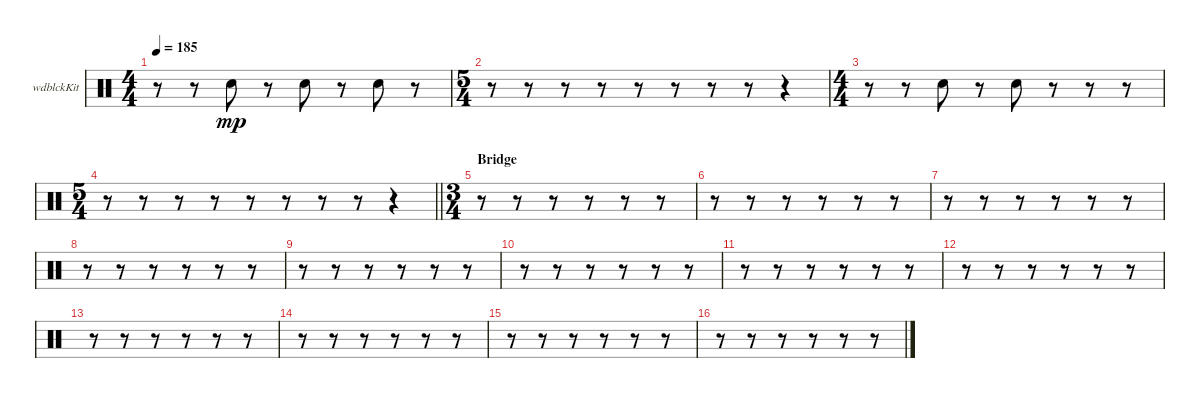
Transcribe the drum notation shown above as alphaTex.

\bracketExtendMode groupsimilarinstruments
\firstSystemTrackNameOrientation horizontal
\otherSystemsTrackNameOrientation horizontal
\track ("Woodblock" "wdblckKit") {instrument percussion}
\staff {score}
\articulation defaults
\ts (4 4)
\beaming (8 2 2 2 2)
\tempo 185
\clef neutral
\ks c
r.8{dy mf} r.8 "Snare (hit) 2".8{dy mp} r.8 "Snare (hit) 2".8 r.8 "Snare (hit) 2".8 r.8 |
\ts (5 4)
\beaming (8 2 2 2 4)
r.8 r.8 r.8 r.8 r.8 r.8 r.8 r.8 r.4 |
\ts (4 4)
\beaming (8 2 2 2 2)
r.8 r.8 "Snare (hit) 2".8 r.8 "Snare (hit) 2".8 r.8 r.8 r.8 |
\ts (5 4)
\beaming (8 2 2 2 4)
\barLineRight lightlight
r.8 r.8 r.8 r.8 r.8 r.8 r.8 r.8 r.4 |
\ts (3 4)
\beaming (8 2 2 2)
\section ("" "Bridge")
r.8 r.8 r.8 r.8 r.8 r.8 |
r.8 r.8 r.8 r.8 r.8 r.8 |
r.8 r.8 r.8 r.8 r.8 r.8 |
r.8 r.8 r.8 r.8 r.8 r.8 |
r.8 r.8 r.8 r.8 r.8 r.8 |
r.8 r.8 r.8 r.8 r.8 r.8 |
r.8 r.8 r.8 r.8 r.8 r.8 |
r.8 r.8 r.8 r.8 r.8 r.8 |
r.8 r.8 r.8 r.8 r.8 r.8 |
r.8 r.8 r.8 r.8 r.8 r.8 |
r.8 r.8 r.8 r.8 r.8 r.8 |
r.8 r.8 r.8 r.8 r.8 r.8
